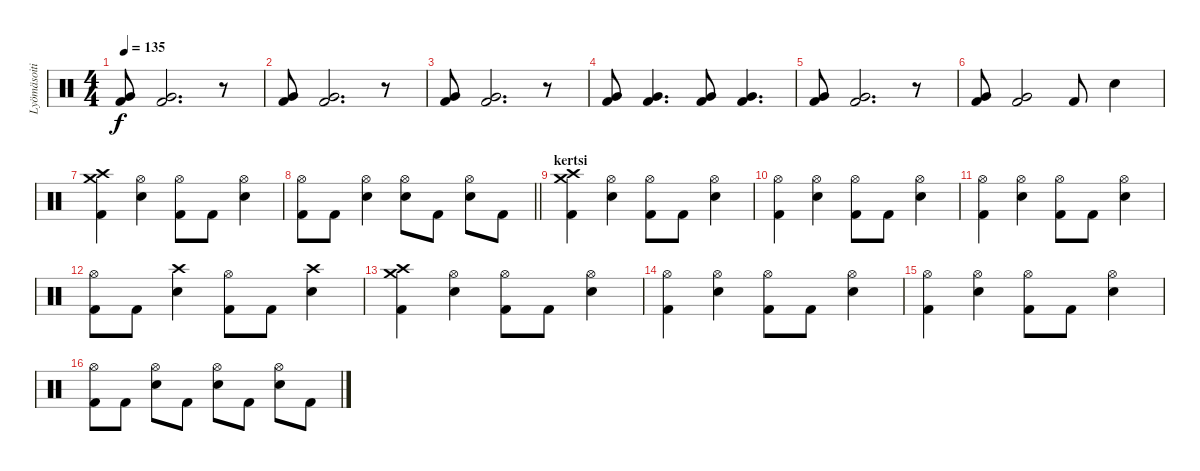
\track ("Lyömäsoitin" "Lyömäsoiti") {instrument percussion}
\staff {score}
\articulation defaults
\ts (4 4)
\tempo 135
\clef neutral
\ks c
("Very Low Tom (hit)" "Kick (hit) 2").8{dy f} ("Very Low Tom (hit)" "Kick (hit) 2").2{d} r.8 |
("Very Low Tom (hit)" "Kick (hit) 2").8 ("Very Low Tom (hit)" "Kick (hit) 2").2{d} r.8 |
("Very Low Tom (hit)" "Kick (hit) 2").8 ("Very Low Tom (hit)" "Kick (hit) 2").2{d} r.8 |
("Very Low Tom (hit)" "Kick (hit) 2").8 ("Very Low Tom (hit)" "Kick (hit) 2").4{d} ("Very Low Tom (hit)" "Kick (hit) 2").8 ("Very Low Tom (hit)" "Kick (hit) 2").4{d} |
("Very Low Tom (hit)" "Kick (hit) 2").8 ("Very Low Tom (hit)" "Kick (hit) 2").2{d} r.8 |
("Very Low Tom (hit)" "Kick (hit) 2").8 ("Very Low Tom (hit)" "Kick (hit) 2").2 "Kick (hit) 2".8 "Electric Snare (hit)".4 |
("Crash high (hit)" "Crash medium (hit)" "Kick (hit) 2").4 ("Hi-Hat (open)" "Electric Snare (hit)").4 ("Hi-Hat (open)" "Kick (hit) 2").8 "Kick (hit) 2".8 ("Hi-Hat (open)" "Electric Snare (hit)").4 |
\barLineRight lightlight
("Hi-Hat (open)" "Kick (hit) 2").8 "Kick (hit) 2".8 ("Hi-Hat (open)" "Electric Snare (hit)").4 ("Hi-Hat (open)" "Electric Snare (hit)").8 "Kick (hit) 2".8 ("Hi-Hat (open)" "Electric Snare (hit)").8 "Kick (hit) 2".8 |
\section ("" "kertsi")
("Crash high (hit)" "Crash medium (hit)" "Kick (hit) 2").4 ("Hi-Hat (open)" "Electric Snare (hit)").4 ("Hi-Hat (open)" "Kick (hit) 2").8 "Kick (hit) 2".8 ("Hi-Hat (open)" "Electric Snare (hit)").4 |
("Hi-Hat (open)" "Kick (hit) 2").4 ("Hi-Hat (open)" "Electric Snare (hit)").4 ("Hi-Hat (open)" "Kick (hit) 2").8 "Kick (hit) 2".8 ("Hi-Hat (open)" "Electric Snare (hit)").4 |
("Hi-Hat (open)" "Kick (hit) 2").4 ("Hi-Hat (open)" "Electric Snare (hit)").4 ("Hi-Hat (open)" "Kick (hit) 2").8 "Kick (hit) 2".8 ("Hi-Hat (open)" "Electric Snare (hit)").4 |
("Hi-Hat (open)" "Kick (hit) 2").8 "Kick (hit) 2".8 ("Crash high (hit)" "Electric Snare (hit)").4 ("Hi-Hat (open)" "Kick (hit) 2").8 "Kick (hit) 2".8 ("Crash high (hit)" "Electric Snare (hit)").4 |
("Crash high (hit)" "Crash medium (hit)" "Kick (hit) 2").4 ("Hi-Hat (open)" "Electric Snare (hit)").4 ("Hi-Hat (open)" "Kick (hit) 2").8 "Kick (hit) 2".8 ("Hi-Hat (open)" "Electric Snare (hit)").4 |
("Hi-Hat (open)" "Kick (hit) 2").4 ("Hi-Hat (open)" "Electric Snare (hit)").4 ("Hi-Hat (open)" "Kick (hit) 2").8 "Kick (hit) 2".8 ("Hi-Hat (open)" "Electric Snare (hit)").4 |
("Hi-Hat (open)" "Kick (hit) 2").4 ("Hi-Hat (open)" "Electric Snare (hit)").4 ("Hi-Hat (open)" "Kick (hit) 2").8 "Kick (hit) 2".8 ("Hi-Hat (open)" "Electric Snare (hit)").4 |
("Hi-Hat (open)" "Kick (hit) 2").8 "Kick (hit) 2".8 ("Hi-Hat (open)" "Electric Snare (hit)").8 "Kick (hit) 2".8 ("Hi-Hat (open)" "Electric Snare (hit)").8 "Kick (hit) 2".8 ("Hi-Hat (open)" "Electric Snare (hit)").8 "Kick (hit) 2".8
